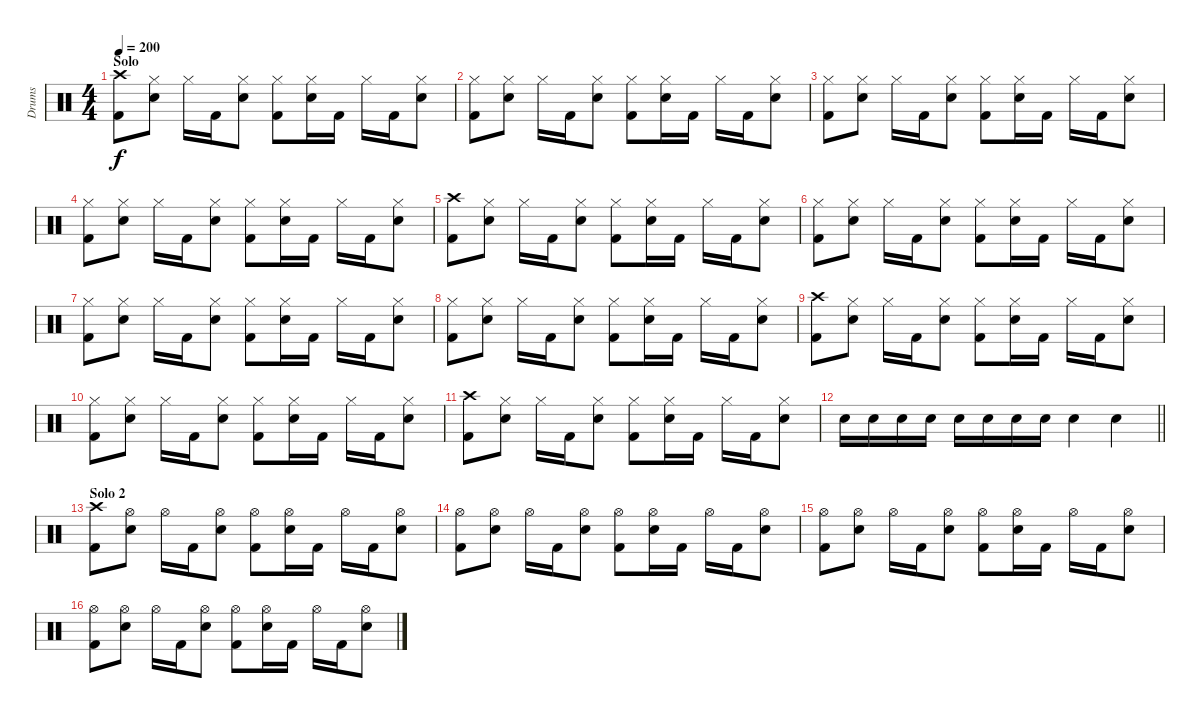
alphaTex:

\track ("Drums" "Drums") {instrument percussion}
\staff {score}
\articulation defaults
\ts (4 4)
\section ("" "Solo")
\tempo 200
\clef neutral
\ks c
("Crash high (hit)" "Kick (hit) 2").8{dy f} ("Hi-Hat (closed)" "Electric Snare (hit)").8 "Hi-Hat (closed)".16 "Kick (hit) 2".16 ("Hi-Hat (closed)" "Electric Snare (hit)").8 ("Hi-Hat (closed)" "Kick (hit) 2").8 ("Hi-Hat (closed)" "Electric Snare (hit)").16 "Kick (hit) 2".16 "Hi-Hat (closed)".16 "Kick (hit) 2".16 ("Hi-Hat (closed)" "Electric Snare (hit)").8 |
("Hi-Hat (closed)" "Kick (hit) 2").8 ("Hi-Hat (closed)" "Electric Snare (hit)").8 "Hi-Hat (closed)".16 "Kick (hit) 2".16 ("Hi-Hat (closed)" "Electric Snare (hit)").8 ("Hi-Hat (closed)" "Kick (hit) 2").8 ("Hi-Hat (closed)" "Electric Snare (hit)").16 "Kick (hit) 2".16 "Hi-Hat (closed)".16 "Kick (hit) 2".16 ("Hi-Hat (closed)" "Electric Snare (hit)").8 |
("Hi-Hat (closed)" "Kick (hit) 2").8 ("Hi-Hat (closed)" "Electric Snare (hit)").8 "Hi-Hat (closed)".16 "Kick (hit) 2".16 ("Hi-Hat (closed)" "Electric Snare (hit)").8 ("Hi-Hat (closed)" "Kick (hit) 2").8 ("Hi-Hat (closed)" "Electric Snare (hit)").16 "Kick (hit) 2".16 "Hi-Hat (closed)".16 "Kick (hit) 2".16 ("Hi-Hat (closed)" "Electric Snare (hit)").8 |
("Hi-Hat (closed)" "Kick (hit) 2").8 ("Hi-Hat (closed)" "Electric Snare (hit)").8 "Hi-Hat (closed)".16 "Kick (hit) 2".16 ("Hi-Hat (closed)" "Electric Snare (hit)").8 ("Hi-Hat (closed)" "Kick (hit) 2").8 ("Hi-Hat (closed)" "Electric Snare (hit)").16 "Kick (hit) 2".16 "Hi-Hat (closed)".16 "Kick (hit) 2".16 ("Hi-Hat (closed)" "Electric Snare (hit)").8 |
("Crash high (hit)" "Kick (hit) 2").8 ("Hi-Hat (closed)" "Electric Snare (hit)").8 "Hi-Hat (closed)".16 "Kick (hit) 2".16 ("Hi-Hat (closed)" "Electric Snare (hit)").8 ("Hi-Hat (closed)" "Kick (hit) 2").8 ("Hi-Hat (closed)" "Electric Snare (hit)").16 "Kick (hit) 2".16 "Hi-Hat (closed)".16 "Kick (hit) 2".16 ("Hi-Hat (closed)" "Electric Snare (hit)").8 |
("Hi-Hat (closed)" "Kick (hit) 2").8 ("Hi-Hat (closed)" "Electric Snare (hit)").8 "Hi-Hat (closed)".16 "Kick (hit) 2".16 ("Hi-Hat (closed)" "Electric Snare (hit)").8 ("Hi-Hat (closed)" "Kick (hit) 2").8 ("Hi-Hat (closed)" "Electric Snare (hit)").16 "Kick (hit) 2".16 "Hi-Hat (closed)".16 "Kick (hit) 2".16 ("Hi-Hat (closed)" "Electric Snare (hit)").8 |
("Hi-Hat (closed)" "Kick (hit) 2").8 ("Hi-Hat (closed)" "Electric Snare (hit)").8 "Hi-Hat (closed)".16 "Kick (hit) 2".16 ("Hi-Hat (closed)" "Electric Snare (hit)").8 ("Hi-Hat (closed)" "Kick (hit) 2").8 ("Hi-Hat (closed)" "Electric Snare (hit)").16 "Kick (hit) 2".16 "Hi-Hat (closed)".16 "Kick (hit) 2".16 ("Hi-Hat (closed)" "Electric Snare (hit)").8 |
("Hi-Hat (closed)" "Kick (hit) 2").8 ("Hi-Hat (closed)" "Electric Snare (hit)").8 "Hi-Hat (closed)".16 "Kick (hit) 2".16 ("Hi-Hat (closed)" "Electric Snare (hit)").8 ("Hi-Hat (closed)" "Kick (hit) 2").8 ("Hi-Hat (closed)" "Electric Snare (hit)").16 "Kick (hit) 2".16 "Hi-Hat (closed)".16 "Kick (hit) 2".16 ("Hi-Hat (closed)" "Electric Snare (hit)").8 |
("Crash high (hit)" "Kick (hit) 2").8 ("Hi-Hat (closed)" "Electric Snare (hit)").8 "Hi-Hat (closed)".16 "Kick (hit) 2".16 ("Hi-Hat (closed)" "Electric Snare (hit)").8 ("Hi-Hat (closed)" "Kick (hit) 2").8 ("Hi-Hat (closed)" "Electric Snare (hit)").16 "Kick (hit) 2".16 "Hi-Hat (closed)".16 "Kick (hit) 2".16 ("Hi-Hat (closed)" "Electric Snare (hit)").8 |
("Hi-Hat (closed)" "Kick (hit) 2").8 ("Hi-Hat (closed)" "Electric Snare (hit)").8 "Hi-Hat (closed)".16 "Kick (hit) 2".16 ("Hi-Hat (closed)" "Electric Snare (hit)").8 ("Hi-Hat (closed)" "Kick (hit) 2").8 ("Hi-Hat (closed)" "Electric Snare (hit)").16 "Kick (hit) 2".16 "Hi-Hat (closed)".16 "Kick (hit) 2".16 ("Hi-Hat (closed)" "Electric Snare (hit)").8 |
("Crash high (hit)" "Kick (hit) 2").8 ("Hi-Hat (closed)" "Electric Snare (hit)").8 "Hi-Hat (closed)".16 "Kick (hit) 2".16 ("Hi-Hat (closed)" "Electric Snare (hit)").8 ("Hi-Hat (closed)" "Kick (hit) 2").8 ("Hi-Hat (closed)" "Electric Snare (hit)").16 "Kick (hit) 2".16 "Hi-Hat (closed)".16 "Kick (hit) 2".16 ("Hi-Hat (closed)" "Electric Snare (hit)").8 |
\barLineRight lightlight "Electric Snare (hit)".16 "Electric Snare (hit)".16 "Electric Snare (hit)".16 "Electric Snare (hit)".16 "Electric Snare (hit)".16 "Electric Snare (hit)".16 "Electric Snare (hit)".16 "Electric Snare (hit)".16 "Electric Snare (hit)".4 "Electric Snare (hit)".4
|
\section ("" "Solo 2")
("Crash high (hit)" "Kick (hit) 2").8 ("Hi-Hat (open)" "Electric Snare (hit)").8 "Hi-Hat (open)".16 "Kick (hit) 2".16 ("Hi-Hat (open)" "Electric Snare (hit)").8 ("Hi-Hat (open)" "Kick (hit) 2").8 ("Hi-Hat (open)" "Electric Snare (hit)").16 "Kick (hit) 2".16 "Hi-Hat (open)".16 "Kick (hit) 2".16 ("Hi-Hat (open)" "Electric Snare (hit)").8 |
("Hi-Hat (open)" "Kick (hit) 2").8 ("Hi-Hat (open)" "Electric Snare (hit)").8 "Hi-Hat (open)".16 "Kick (hit) 2".16 ("Hi-Hat (open)" "Electric Snare (hit)").8 ("Hi-Hat (open)" "Kick (hit) 2").8 ("Hi-Hat (open)" "Electric Snare (hit)").16 "Kick (hit) 2".16 "Hi-Hat (open)".16 "Kick (hit) 2".16 ("Hi-Hat (open)" "Electric Snare (hit)").8 |
("Hi-Hat (open)" "Kick (hit) 2").8 ("Hi-Hat (open)" "Electric Snare (hit)").8 "Hi-Hat (open)".16 "Kick (hit) 2".16 ("Hi-Hat (open)" "Electric Snare (hit)").8 ("Hi-Hat (open)" "Kick (hit) 2").8 ("Hi-Hat (open)" "Electric Snare (hit)").16 "Kick (hit) 2".16 "Hi-Hat (open)".16 "Kick (hit) 2".16 ("Hi-Hat (open)" "Electric Snare (hit)").8 |
("Hi-Hat (open)" "Kick (hit) 2").8 ("Hi-Hat (open)" "Electric Snare (hit)").8 "Hi-Hat (open)".16 "Kick (hit) 2".16 ("Hi-Hat (open)" "Electric Snare (hit)").8 ("Hi-Hat (open)" "Kick (hit) 2").8 ("Hi-Hat (open)" "Electric Snare (hit)").16 "Kick (hit) 2".16 "Hi-Hat (open)".16 "Kick (hit) 2".16 ("Hi-Hat (open)" "Electric Snare (hit)").8
